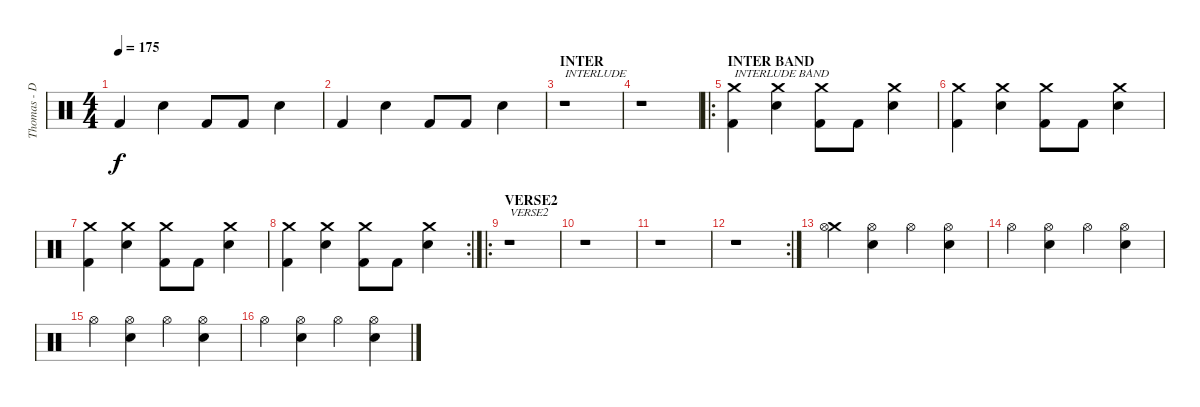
\track ("Thomas - Drums" "Thomas - D") {instrument percussion}
\staff {score}
\articulation defaults
\ts (4 4)
\tempo 175
\clef neutral
\ks c "Kick (hit) 2".4{dy f} "Electric Snare (hit)".4 "Kick (hit) 2".8 "Kick (hit) 2".8 "Electric Snare (hit)".4
|
"Kick (hit) 2".4 "Electric Snare (hit)".4 "Kick (hit) 2".8 "Kick (hit) 2".8 "Electric Snare (hit)".4 |
\section ("" "INTER")
r.1{txt "INTERLUDE"} |
r.1 |
\ro
\section ("" "INTER BAND")
("Crash medium (hit)" "Kick (hit) 2").4{txt "INTERLUDE BAND"} ("Crash medium (hit)" "Electric Snare (hit)").4 ("Crash medium (hit)" "Kick (hit) 2").8 "Kick (hit) 2".8 ("Crash medium (hit)" "Electric Snare (hit)").4 |
("Crash medium (hit)" "Kick (hit) 2").4 ("Crash medium (hit)" "Electric Snare (hit)").4 ("Crash medium (hit)" "Kick (hit) 2").8 "Kick (hit) 2".8 ("Crash medium (hit)" "Electric Snare (hit)").4 |
("Crash medium (hit)" "Kick (hit) 2").4 ("Crash medium (hit)" "Electric Snare (hit)").4 ("Crash medium (hit)" "Kick (hit) 2").8 "Kick (hit) 2".8 ("Crash medium (hit)" "Electric Snare (hit)").4 |
\rc 2
("Crash medium (hit)" "Kick (hit) 2").4 ("Crash medium (hit)" "Electric Snare (hit)").4 ("Crash medium (hit)" "Kick (hit) 2").8 "Kick (hit) 2".8 ("Crash medium (hit)" "Electric Snare (hit)").4 |
\ro
\section ("" "VERSE2")
r.1{txt "VERSE2"} |
r.1 |
r.1 |
\rc 2
r.1 |
("Crash medium (hit)" "Hi-Hat (open)").4 ("Electric Snare (hit)" "Hi-Hat (open)").4 "Hi-Hat (open)".4 ("Electric Snare (hit)" "Hi-Hat (open)").4 |
"Hi-Hat (open)".4 ("Electric Snare (hit)" "Hi-Hat (open)").4 "Hi-Hat (open)".4 ("Electric Snare (hit)" "Hi-Hat (open)").4 |
"Hi-Hat (open)".4 ("Electric Snare (hit)" "Hi-Hat (open)").4 "Hi-Hat (open)".4 ("Electric Snare (hit)" "Hi-Hat (open)").4 |
"Hi-Hat (open)".4 ("Electric Snare (hit)" "Hi-Hat (open)").4 "Hi-Hat (open)".4 ("Electric Snare (hit)" "Hi-Hat (open)").4
